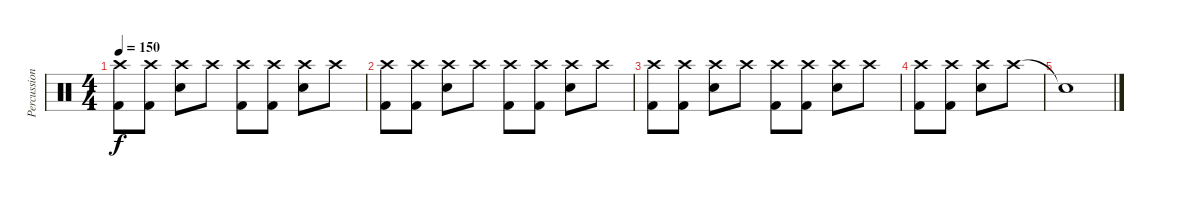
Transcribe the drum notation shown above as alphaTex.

\track ("Percussion" "Percussion") {instrument percussion}
\staff {score}
\articulation defaults
\ts (4 4)
\tempo 150
\clef neutral
\ks c
("Crash high (hit)" "Kick (hit) 2").8{dy f} ("Crash high (hit)" "Kick (hit) 2").8 ("Crash high (hit)" "Electric Snare (hit)").8 "Crash high (hit)".8 ("Crash high (hit)" "Kick (hit) 2").8 ("Crash high (hit)" "Kick (hit) 2").8 ("Crash high (hit)" "Electric Snare (hit)").8 "Crash high (hit)".8 |
("Crash high (hit)" "Kick (hit) 2").8 ("Crash high (hit)" "Kick (hit) 2").8 ("Crash high (hit)" "Electric Snare (hit)").8 "Crash high (hit)".8 ("Crash high (hit)" "Kick (hit) 2").8 ("Crash high (hit)" "Kick (hit) 2").8 ("Crash high (hit)" "Electric Snare (hit)").8 "Crash high (hit)".8 |
("Crash high (hit)" "Kick (hit) 2").8 ("Crash high (hit)" "Kick (hit) 2").8 ("Crash high (hit)" "Electric Snare (hit)").8 "Crash high (hit)".8 ("Crash high (hit)" "Kick (hit) 2").8 ("Crash high (hit)" "Kick (hit) 2").8 ("Crash high (hit)" "Electric Snare (hit)").8 "Crash high (hit)".8 |
("Crash high (hit)" "Kick (hit) 2").8 ("Crash high (hit)" "Kick (hit) 2").8 ("Crash high (hit)" "Electric Snare (hit)").8 "Crash high (hit)".8 |
"Snare (hit)"{t}.1
